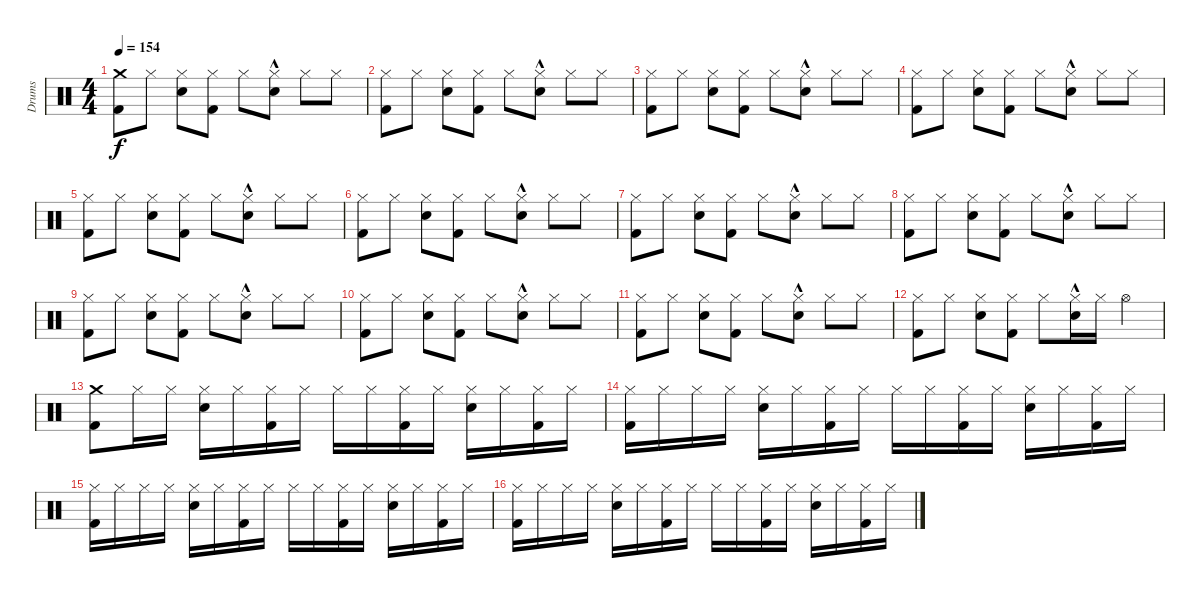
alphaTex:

\track ("Drums" "Drums") {instrument percussion}
\staff {score}
\articulation defaults
\ts (4 4)
\tempo 154
\clef neutral
\ks c
("Crash medium (hit)" "Kick (hit) 2").8{dy f} "Hi-Hat (closed)".8 ("Hi-Hat (closed)" "Electric Snare (hit)").8 ("Kick (hit) 2" "Hi-Hat (closed)").8 "Hi-Hat (closed)".8 ("Electric Snare (hit)"{hac} "Hi-Hat (closed)").8 "Hi-Hat (closed)".8 "Hi-Hat (closed)".8 |
("Hi-Hat (closed)" "Kick (hit) 2").8 "Hi-Hat (closed)".8 ("Hi-Hat (closed)" "Electric Snare (hit)").8 ("Kick (hit) 2" "Hi-Hat (closed)").8 "Hi-Hat (closed)".8 ("Electric Snare (hit)"{hac} "Hi-Hat (closed)").8 "Hi-Hat (closed)".8 "Hi-Hat (closed)".8 |
("Hi-Hat (closed)" "Kick (hit) 2").8 "Hi-Hat (closed)".8 ("Hi-Hat (closed)" "Electric Snare (hit)").8 ("Kick (hit) 2" "Hi-Hat (closed)").8 "Hi-Hat (closed)".8 ("Electric Snare (hit)"{hac} "Hi-Hat (closed)").8 "Hi-Hat (closed)".8 "Hi-Hat (closed)".8 |
("Hi-Hat (closed)" "Kick (hit) 2").8 "Hi-Hat (closed)".8 ("Hi-Hat (closed)" "Electric Snare (hit)").8 ("Kick (hit) 2" "Hi-Hat (closed)").8 "Hi-Hat (closed)".8 ("Electric Snare (hit)"{hac} "Hi-Hat (closed)").8 "Hi-Hat (closed)".8 "Hi-Hat (closed)".8 |
("Hi-Hat (closed)" "Kick (hit) 2").8 "Hi-Hat (closed)".8 ("Hi-Hat (closed)" "Electric Snare (hit)").8 ("Kick (hit) 2" "Hi-Hat (closed)").8 "Hi-Hat (closed)".8 ("Electric Snare (hit)"{hac} "Hi-Hat (closed)").8 "Hi-Hat (closed)".8 "Hi-Hat (closed)".8 |
("Hi-Hat (closed)" "Kick (hit) 2").8 "Hi-Hat (closed)".8 ("Hi-Hat (closed)" "Electric Snare (hit)").8 ("Kick (hit) 2" "Hi-Hat (closed)").8 "Hi-Hat (closed)".8 ("Electric Snare (hit)"{hac} "Hi-Hat (closed)").8 "Hi-Hat (closed)".8 "Hi-Hat (closed)".8 |
("Hi-Hat (closed)" "Kick (hit) 2").8 "Hi-Hat (closed)".8 ("Hi-Hat (closed)" "Electric Snare (hit)").8 ("Kick (hit) 2" "Hi-Hat (closed)").8 "Hi-Hat (closed)".8 ("Electric Snare (hit)"{hac} "Hi-Hat (closed)").8 "Hi-Hat (closed)".8 "Hi-Hat (closed)".8 |
("Hi-Hat (closed)" "Kick (hit) 2").8 "Hi-Hat (closed)".8 ("Hi-Hat (closed)" "Electric Snare (hit)").8 ("Kick (hit) 2" "Hi-Hat (closed)").8 "Hi-Hat (closed)".8 ("Electric Snare (hit)"{hac} "Hi-Hat (closed)").8 "Hi-Hat (closed)".8 "Hi-Hat (closed)".8 |
("Hi-Hat (closed)" "Kick (hit) 2").8 "Hi-Hat (closed)".8 ("Hi-Hat (closed)" "Electric Snare (hit)").8 ("Kick (hit) 2" "Hi-Hat (closed)").8 "Hi-Hat (closed)".8 ("Electric Snare (hit)"{hac} "Hi-Hat (closed)").8 "Hi-Hat (closed)".8 "Hi-Hat (closed)".8 |
("Hi-Hat (closed)" "Kick (hit) 2").8 "Hi-Hat (closed)".8 ("Hi-Hat (closed)" "Electric Snare (hit)").8 ("Kick (hit) 2" "Hi-Hat (closed)").8 "Hi-Hat (closed)".8 ("Electric Snare (hit)"{hac} "Hi-Hat (closed)").8 "Hi-Hat (closed)".8 "Hi-Hat (closed)".8 |
("Hi-Hat (closed)" "Kick (hit) 2").8 "Hi-Hat (closed)".8 ("Hi-Hat (closed)" "Electric Snare (hit)").8 ("Kick (hit) 2" "Hi-Hat (closed)").8 "Hi-Hat (closed)".8 ("Electric Snare (hit)"{hac} "Hi-Hat (closed)").8 "Hi-Hat (closed)".8 "Hi-Hat (closed)".8 |
("Hi-Hat (closed)" "Kick (hit) 2").8 "Hi-Hat (closed)".8 ("Hi-Hat (closed)" "Electric Snare (hit)").8 ("Kick (hit) 2" "Hi-Hat (closed)").8 "Hi-Hat (closed)".8 ("Hi-Hat (closed)" "Electric Snare (hit)"{hac}).16 "Hi-Hat (closed)".16 "Hi-Hat (open)".4 |
("Crash medium (hit)" "Kick (hit) 2").8 "Hi-Hat (closed)".16 "Hi-Hat (closed)".16 ("Electric Snare (hit)" "Hi-Hat (closed)").16 "Hi-Hat (closed)".16 ("Kick (hit) 2" "Hi-Hat (closed)").16 "Hi-Hat (closed)".16 "Hi-Hat (closed)".16 "Hi-Hat (closed)".16 ("Kick (hit) 2" "Hi-Hat (closed)").16 "Hi-Hat (closed)".16 ("Electric Snare (hit)" "Hi-Hat (closed)").16 "Hi-Hat (closed)".16 ("Kick (hit) 2" "Hi-Hat (closed)").16 "Hi-Hat (closed)".16 |
("Hi-Hat (closed)" "Kick (hit) 2").16 "Hi-Hat (closed)".16 "Hi-Hat (closed)".16 "Hi-Hat (closed)".16 ("Hi-Hat (closed)" "Electric Snare (hit)").16 "Hi-Hat (closed)".16 ("Kick (hit) 2" "Hi-Hat (closed)").16 "Hi-Hat (closed)".16 "Hi-Hat (closed)".16 "Hi-Hat (closed)".16 ("Kick (hit) 2" "Hi-Hat (closed)").16 "Hi-Hat (closed)".16 ("Electric Snare (hit)" "Hi-Hat (closed)").16 "Hi-Hat (closed)".16 ("Kick (hit) 2" "Hi-Hat (closed)").16 "Hi-Hat (closed)".16 |
("Hi-Hat (closed)" "Kick (hit) 2").16 "Hi-Hat (closed)".16 "Hi-Hat (closed)".16 "Hi-Hat (closed)".16 ("Hi-Hat (closed)" "Electric Snare (hit)").16 "Hi-Hat (closed)".16 ("Kick (hit) 2" "Hi-Hat (closed)").16 "Hi-Hat (closed)".16 "Hi-Hat (closed)".16 "Hi-Hat (closed)".16 ("Kick (hit) 2" "Hi-Hat (closed)").16 "Hi-Hat (closed)".16 ("Electric Snare (hit)" "Hi-Hat (closed)").16 "Hi-Hat (closed)".16 ("Kick (hit) 2" "Hi-Hat (closed)").16 "Hi-Hat (closed)".16 |
("Hi-Hat (closed)" "Kick (hit) 2").16 "Hi-Hat (closed)".16 "Hi-Hat (closed)".16 "Hi-Hat (closed)".16 ("Hi-Hat (closed)" "Electric Snare (hit)").16 "Hi-Hat (closed)".16 ("Kick (hit) 2" "Hi-Hat (closed)").16 "Hi-Hat (closed)".16 "Hi-Hat (closed)".16 "Hi-Hat (closed)".16 ("Kick (hit) 2" "Hi-Hat (closed)").16 "Hi-Hat (closed)".16 ("Electric Snare (hit)" "Hi-Hat (closed)").16 "Hi-Hat (closed)".16 ("Kick (hit) 2" "Hi-Hat (closed)").16 "Hi-Hat (closed)".16
